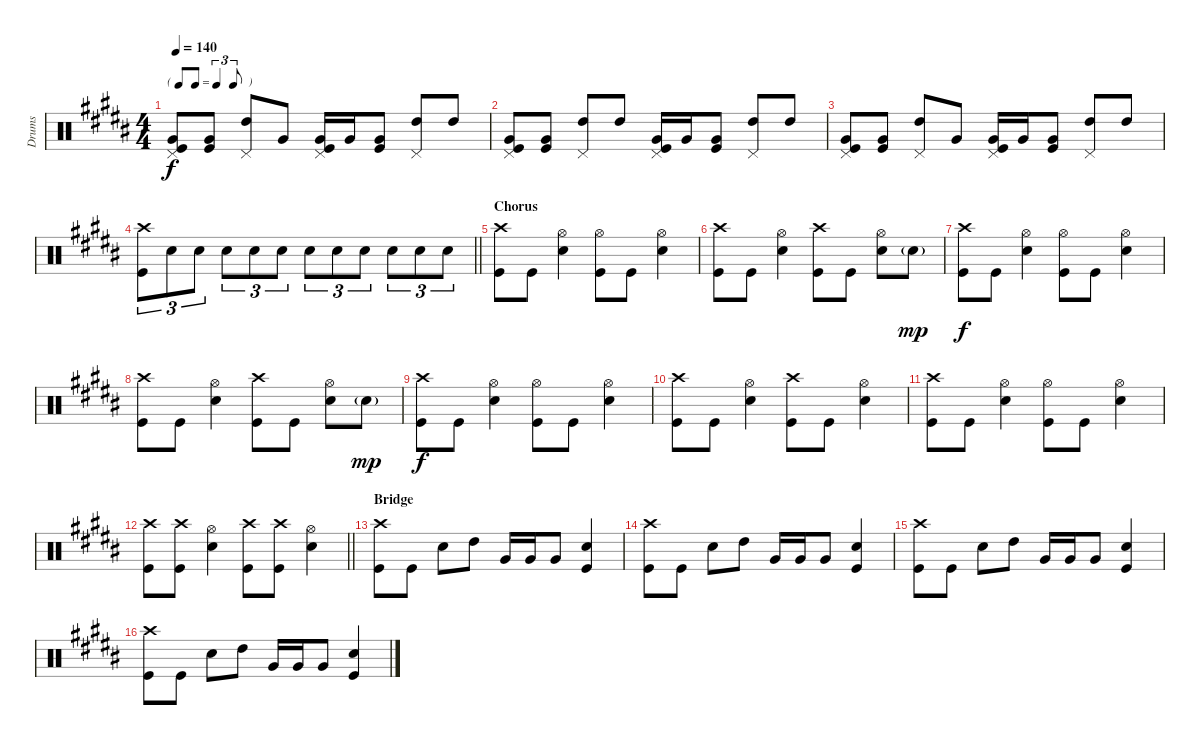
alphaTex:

\track ("Drums" "Drums") {instrument percussion}
\staff {score}
\articulation defaults
\ts (4 4)
\tf triplet8th
\tempo 140
\clef neutral
\ks b
("Kick (hit)" "Very Low Tom (hit)" "Pedal Hi-Hat (hit)").8{dy f} ("Kick (hit)" "Very Low Tom (hit)").8 ("High Tom (hit)" "Pedal Hi-Hat (hit)").8 "Very Low Tom (hit)".8 ("Very Low Tom (hit)" "Kick (hit)" "Pedal Hi-Hat (hit)").16 "Very Low Tom (hit)".16 ("Very Low Tom (hit)" "Kick (hit)").8 ("High Tom (hit)" "Pedal Hi-Hat (hit)").8 "High Tom (hit)".8 |
("Kick (hit)" "Very Low Tom (hit)" "Pedal Hi-Hat (hit)").8 ("Kick (hit)" "Very Low Tom (hit)").8 ("High Tom (hit)" "Pedal Hi-Hat (hit)").8 "High Tom (hit)".8 ("Very Low Tom (hit)" "Kick (hit)" "Pedal Hi-Hat (hit)").16 "Very Low Tom (hit)".16 ("Very Low Tom (hit)" "Kick (hit)").8 ("High Tom (hit)" "Pedal Hi-Hat (hit)").8 "High Tom (hit)".8 |
("Kick (hit)" "Very Low Tom (hit)" "Pedal Hi-Hat (hit)").8 ("Kick (hit)" "Very Low Tom (hit)").8 ("High Tom (hit)" "Pedal Hi-Hat (hit)").8 "Very Low Tom (hit)".8 ("Very Low Tom (hit)" "Kick (hit)" "Pedal Hi-Hat (hit)").16 "Very Low Tom (hit)".16 ("Very Low Tom (hit)" "Kick (hit)").8 ("High Tom (hit)" "Pedal Hi-Hat (hit)").8 "High Tom (hit)".8 |
\barLineRight lightlight
("Kick (hit)" "Crash high (hit)").8{tu (3 2)} "Snare (hit) 2".8{tu (3 2)} "Snare (hit) 2".8{tu (3 2)} "Snare (hit) 2".8{tu (3 2)} "Snare (hit) 2".8{tu (3 2)} "Snare (hit) 2".8{tu (3 2)} "Snare (hit) 2".8{tu (3 2)} "Snare (hit) 2".8{tu (3 2)} "Snare (hit) 2".8{tu (3 2)} "Snare (hit) 2".8{tu (3 2)} "Snare (hit) 2".8{tu (3 2)} "Snare (hit) 2".8{tu (3 2)} |
\section ("" "Chorus")
("Kick (hit)" "Crash high (hit)").8 "Kick (hit)".8 ("Snare (hit) 2" "Hi-Hat (open)").4 ("Kick (hit)" "Hi-Hat (open)").8 "Kick (hit)".8 ("Snare (hit) 2" "Hi-Hat (open)").4 |
("Kick (hit)" "Crash high (hit)").8 "Kick (hit)".8 ("Snare (hit) 2" "Hi-Hat (open)").4 ("Kick (hit)" "Crash high (hit)").8 "Kick (hit)".8 ("Snare (hit) 2" "Hi-Hat (open)").8 "Snare (hit) 2"{g}.8{dy mp} |
("Kick (hit)" "Crash high (hit)").8{dy f} "Kick (hit)".8 ("Snare (hit) 2" "Hi-Hat (open)").4 ("Kick (hit)" "Hi-Hat (open)").8 "Kick (hit)".8 ("Snare (hit) 2" "Hi-Hat (open)").4 |
("Kick (hit)" "Crash high (hit)").8 "Kick (hit)".8 ("Snare (hit) 2" "Hi-Hat (open)").4 ("Kick (hit)" "Crash high (hit)").8 "Kick (hit)".8 ("Snare (hit) 2" "Hi-Hat (open)").8 "Snare (hit) 2"{g}.8{dy mp} |
("Kick (hit)" "Crash high (hit)").8{dy f} "Kick (hit)".8 ("Snare (hit) 2" "Hi-Hat (open)").4 ("Kick (hit)" "Hi-Hat (open)").8 "Kick (hit)".8 ("Snare (hit) 2" "Hi-Hat (open)").4 |
("Kick (hit)" "Crash high (hit)").8 "Kick (hit)".8 ("Snare (hit) 2" "Hi-Hat (open)").4 ("Kick (hit)" "Crash high (hit)").8 "Kick (hit)".8 ("Snare (hit) 2" "Hi-Hat (open)").4 |
("Kick (hit)" "Crash high (hit)").8 "Kick (hit)".8 ("Snare (hit) 2" "Hi-Hat (open)").4 ("Kick (hit)" "Hi-Hat (open)").8 "Kick (hit)".8 ("Snare (hit) 2" "Hi-Hat (open)").4 |
\barLineRight lightlight
("Kick (hit)" "Crash high (hit)").8 ("Kick (hit)" "Crash high (hit)").8 ("Snare (hit) 2" "Hi-Hat (open)").4 ("Kick (hit)" "Crash high (hit)").8 ("Kick (hit)" "Crash high (hit)").8 ("Snare (hit) 2" "Hi-Hat (open)").4 |
\section ("" "Bridge")
("Kick (hit)" "Crash high (hit)").8 "Kick (hit)".8 "Snare (hit) 2".8 "High Tom (hit)".8 "Very Low Tom (hit)".16 "Very Low Tom (hit)".16 "Very Low Tom (hit)".8 ("Kick (hit)" "Snare (hit) 2").4 |
("Kick (hit)" "Crash high (hit)").8 "Kick (hit)".8 "Snare (hit) 2".8 "High Tom (hit)".8 "Very Low Tom (hit)".16 "Very Low Tom (hit)".16 "Very Low Tom (hit)".8 ("Kick (hit)" "Snare (hit) 2").4 |
("Kick (hit)" "Crash high (hit)").8 "Kick (hit)".8 "Snare (hit) 2".8 "High Tom (hit)".8 "Very Low Tom (hit)".16 "Very Low Tom (hit)".16 "Very Low Tom (hit)".8 ("Kick (hit)" "Snare (hit) 2").4 |
("Kick (hit)" "Crash high (hit)").8 "Kick (hit)".8 "Snare (hit) 2".8 "High Tom (hit)".8 "Very Low Tom (hit)".16 "Very Low Tom (hit)".16 "Very Low Tom (hit)".8 ("Kick (hit)" "Snare (hit) 2").4
